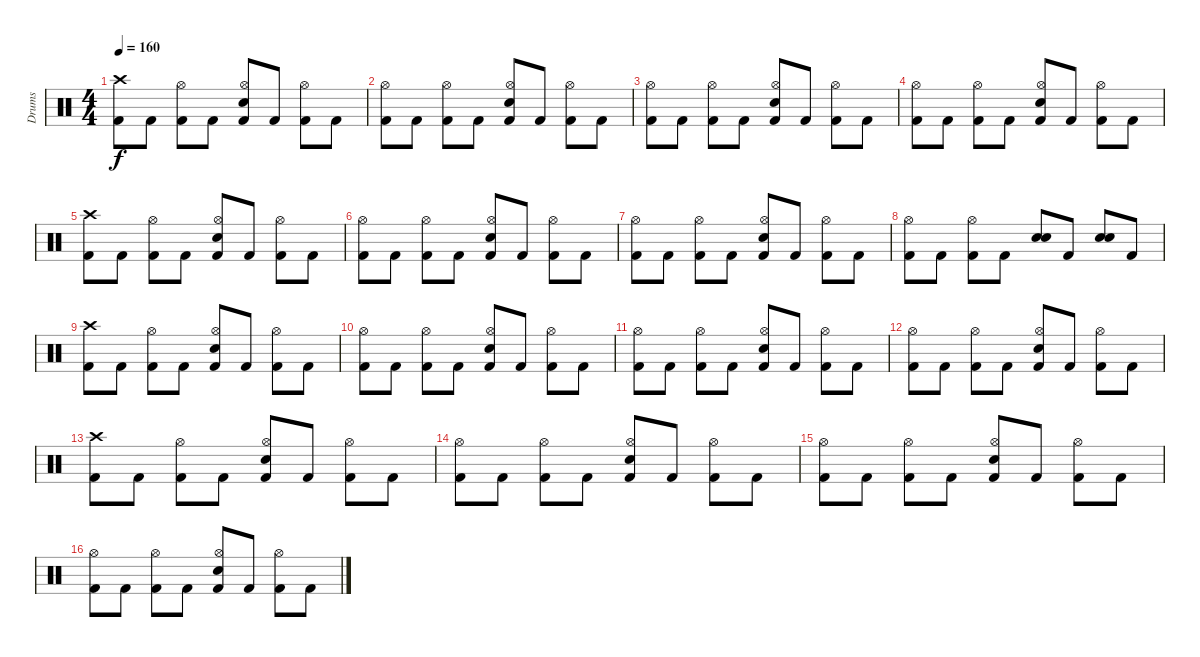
\track ("Drums" "Drums") {instrument percussion}
\staff {score}
\articulation defaults
\ts (4 4)
\tempo 160
\clef neutral
\ks c
("Crash high (hit)" "Kick (hit) 2").8{dy f} "Kick (hit) 2".8 ("Hi-Hat (open)" "Kick (hit) 2").8 "Kick (hit) 2".8 ("Hi-Hat (open)" "Electric Snare (hit)" "Kick (hit) 2").8 "Kick (hit) 2".8 ("Hi-Hat (open)" "Kick (hit) 2").8 "Kick (hit) 2".8 |
("Hi-Hat (open)" "Kick (hit) 2").8 "Kick (hit) 2".8 ("Hi-Hat (open)" "Kick (hit) 2").8 "Kick (hit) 2".8 ("Hi-Hat (open)" "Electric Snare (hit)" "Kick (hit) 2").8 "Kick (hit) 2".8 ("Hi-Hat (open)" "Kick (hit) 2").8 "Kick (hit) 2".8 |
("Hi-Hat (open)" "Kick (hit) 2").8 "Kick (hit) 2".8 ("Hi-Hat (open)" "Kick (hit) 2").8 "Kick (hit) 2".8 ("Hi-Hat (open)" "Electric Snare (hit)" "Kick (hit) 2").8 "Kick (hit) 2".8 ("Hi-Hat (open)" "Kick (hit) 2").8 "Kick (hit) 2".8 |
("Hi-Hat (open)" "Kick (hit) 2").8 "Kick (hit) 2".8 ("Hi-Hat (open)" "Kick (hit) 2").8 "Kick (hit) 2".8 ("Hi-Hat (open)" "Electric Snare (hit)" "Kick (hit) 2").8 "Kick (hit) 2".8 ("Hi-Hat (open)" "Kick (hit) 2").8 "Kick (hit) 2".8 |
("Crash high (hit)" "Kick (hit) 2").8 "Kick (hit) 2".8 ("Hi-Hat (open)" "Kick (hit) 2").8 "Kick (hit) 2".8 ("Hi-Hat (open)" "Electric Snare (hit)" "Kick (hit) 2").8 "Kick (hit) 2".8 ("Hi-Hat (open)" "Kick (hit) 2").8 "Kick (hit) 2".8 |
("Hi-Hat (open)" "Kick (hit) 2").8 "Kick (hit) 2".8 ("Hi-Hat (open)" "Kick (hit) 2").8 "Kick (hit) 2".8 ("Hi-Hat (open)" "Electric Snare (hit)" "Kick (hit) 2").8 "Kick (hit) 2".8 ("Hi-Hat (open)" "Kick (hit) 2").8 "Kick (hit) 2".8 |
("Hi-Hat (open)" "Kick (hit) 2").8 "Kick (hit) 2".8 ("Hi-Hat (open)" "Kick (hit) 2").8 "Kick (hit) 2".8 ("Hi-Hat (open)" "Electric Snare (hit)" "Kick (hit) 2").8 "Kick (hit) 2".8 ("Hi-Hat (open)" "Kick (hit) 2").8 "Kick (hit) 2".8 |
("Hi-Hat (open)" "Kick (hit) 2").8 "Kick (hit) 2".8 ("Hi-Hat (open)" "Kick (hit) 2").8 "Kick (hit) 2".8 ("Electric Snare (hit)" "Electric Snare (hit)").8{bd 120} "Kick (hit) 2".8 ("Electric Snare (hit)" "Electric Snare (hit)").8{bd 120} "Kick (hit) 2".8 |
("Crash high (hit)" "Kick (hit) 2").8 "Kick (hit) 2".8 ("Hi-Hat (open)" "Kick (hit) 2").8 "Kick (hit) 2".8 ("Hi-Hat (open)" "Electric Snare (hit)" "Kick (hit) 2").8 "Kick (hit) 2".8 ("Hi-Hat (open)" "Kick (hit) 2").8 "Kick (hit) 2".8 |
("Hi-Hat (open)" "Kick (hit) 2").8 "Kick (hit) 2".8 ("Hi-Hat (open)" "Kick (hit) 2").8 "Kick (hit) 2".8 ("Hi-Hat (open)" "Electric Snare (hit)" "Kick (hit) 2").8 "Kick (hit) 2".8 ("Hi-Hat (open)" "Kick (hit) 2").8 "Kick (hit) 2".8 |
("Hi-Hat (open)" "Kick (hit) 2").8 "Kick (hit) 2".8 ("Hi-Hat (open)" "Kick (hit) 2").8 "Kick (hit) 2".8 ("Hi-Hat (open)" "Electric Snare (hit)" "Kick (hit) 2").8 "Kick (hit) 2".8 ("Hi-Hat (open)" "Kick (hit) 2").8 "Kick (hit) 2".8 |
("Hi-Hat (open)" "Kick (hit) 2").8 "Kick (hit) 2".8 ("Hi-Hat (open)" "Kick (hit) 2").8 "Kick (hit) 2".8 ("Hi-Hat (open)" "Electric Snare (hit)" "Kick (hit) 2").8 "Kick (hit) 2".8 ("Hi-Hat (open)" "Kick (hit) 2").8 "Kick (hit) 2".8 |
("Crash high (hit)" "Kick (hit) 2").8 "Kick (hit) 2".8 ("Hi-Hat (open)" "Kick (hit) 2").8 "Kick (hit) 2".8 ("Hi-Hat (open)" "Electric Snare (hit)" "Kick (hit) 2").8 "Kick (hit) 2".8 ("Hi-Hat (open)" "Kick (hit) 2").8 "Kick (hit) 2".8 |
("Hi-Hat (open)" "Kick (hit) 2").8 "Kick (hit) 2".8 ("Hi-Hat (open)" "Kick (hit) 2").8 "Kick (hit) 2".8 ("Hi-Hat (open)" "Electric Snare (hit)" "Kick (hit) 2").8 "Kick (hit) 2".8 ("Hi-Hat (open)" "Kick (hit) 2").8 "Kick (hit) 2".8 |
("Hi-Hat (open)" "Kick (hit) 2").8 "Kick (hit) 2".8 ("Hi-Hat (open)" "Kick (hit) 2").8 "Kick (hit) 2".8 ("Hi-Hat (open)" "Electric Snare (hit)" "Kick (hit) 2").8 "Kick (hit) 2".8 ("Hi-Hat (open)" "Kick (hit) 2").8 "Kick (hit) 2".8 |
("Hi-Hat (open)" "Kick (hit) 2").8 "Kick (hit) 2".8 ("Hi-Hat (open)" "Kick (hit) 2").8 "Kick (hit) 2".8 ("Hi-Hat (open)" "Electric Snare (hit)" "Kick (hit) 2").8 "Kick (hit) 2".8 ("Hi-Hat (open)" "Kick (hit) 2").8 "Kick (hit) 2".8
